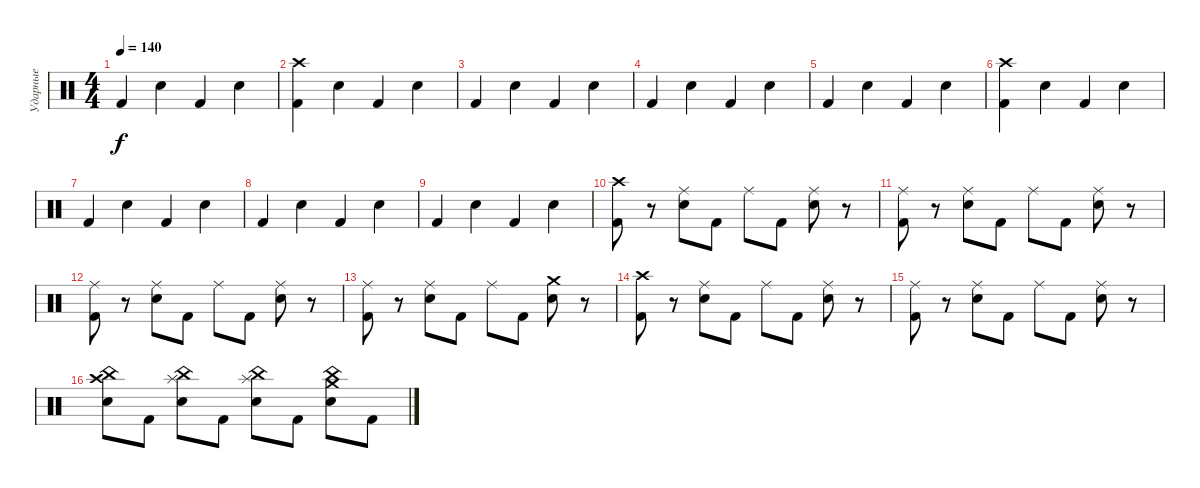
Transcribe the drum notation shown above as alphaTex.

\track ("Ударные" "Ударные") {instrument percussion}
\staff {score}
\articulation defaults
\ts (4 4)
\tempo 140
\clef neutral
\ks c "Kick (hit) 2".4{dy f} "Electric Snare (hit)".4 "Kick (hit) 2".4 "Electric Snare (hit)".4
|
("Crash high (hit)" "Kick (hit) 2").4 "Electric Snare (hit)".4 "Kick (hit) 2".4 "Electric Snare (hit)".4 |
"Kick (hit) 2".4 "Electric Snare (hit)".4 "Kick (hit) 2".4 "Electric Snare (hit)".4 |
"Kick (hit) 2".4 "Electric Snare (hit)".4 "Kick (hit) 2".4 "Electric Snare (hit)".4 |
"Kick (hit) 2".4 "Electric Snare (hit)".4 "Kick (hit) 2".4 "Electric Snare (hit)".4 |
("Crash high (hit)" "Kick (hit) 2").4 "Electric Snare (hit)".4 "Kick (hit) 2".4 "Electric Snare (hit)".4 |
"Kick (hit) 2".4 "Electric Snare (hit)".4 "Kick (hit) 2".4 "Electric Snare (hit)".4 |
"Kick (hit) 2".4 "Electric Snare (hit)".4 "Kick (hit) 2".4 "Electric Snare (hit)".4 |
"Kick (hit) 2".4 "Electric Snare (hit)".4 "Kick (hit) 2".4 "Electric Snare (hit)".4 |
("Crash high (hit)" "Kick (hit) 2").8 r.8 ("Ride (middle)" "Electric Snare (hit)").8 "Kick (hit) 2".8 "Ride (middle)".8 "Kick (hit) 2".8 ("Ride (middle)" "Electric Snare (hit)").8 r.8 |
("Ride (middle)" "Kick (hit) 2").8 r.8 ("Ride (middle)" "Electric Snare (hit)").8 "Kick (hit) 2".8 "Ride (middle)".8 "Kick (hit) 2".8 ("Ride (middle)" "Electric Snare (hit)").8 r.8 |
("Ride (middle)" "Kick (hit) 2").8 r.8 ("Ride (middle)" "Electric Snare (hit)").8 "Kick (hit) 2".8 "Ride (middle)".8 "Kick (hit) 2".8 ("Ride (middle)" "Electric Snare (hit)").8 r.8 |
("Ride (middle)" "Kick (hit) 2").8 r.8 ("Ride (middle)" "Electric Snare (hit)").8 "Kick (hit) 2".8 "Ride (middle)".8 "Kick (hit) 2".8 ("Crash medium (hit)" "Electric Snare (hit)").8 r.8 |
("Crash high (hit)" "Kick (hit) 2").8 r.8 ("Ride (middle)" "Electric Snare (hit)").8 "Kick (hit) 2".8 "Ride (middle)".8 "Kick (hit) 2".8 ("Ride (middle)" "Electric Snare (hit)").8 r.8 |
("Ride (middle)" "Kick (hit) 2").8 r.8 ("Ride (middle)" "Electric Snare (hit)").8 "Kick (hit) 2".8 "Ride (middle)".8 "Kick (hit) 2".8 ("Ride (middle)" "Electric Snare (hit)").8 r.8 |
("Crash high (hit)" "China (hit)" "Electric Snare (hit)").8 "Kick (hit) 2".8 ("Splash (hit)" "China (hit)" "Electric Snare (hit)").8 "Kick (hit) 2".8 ("Splash (hit)" "China (hit)" "Electric Snare (hit)").8 "Kick (hit) 2".8 ("Crash medium (hit)" "China (hit)" "Electric Snare (hit)").8 "Kick (hit) 2".8
